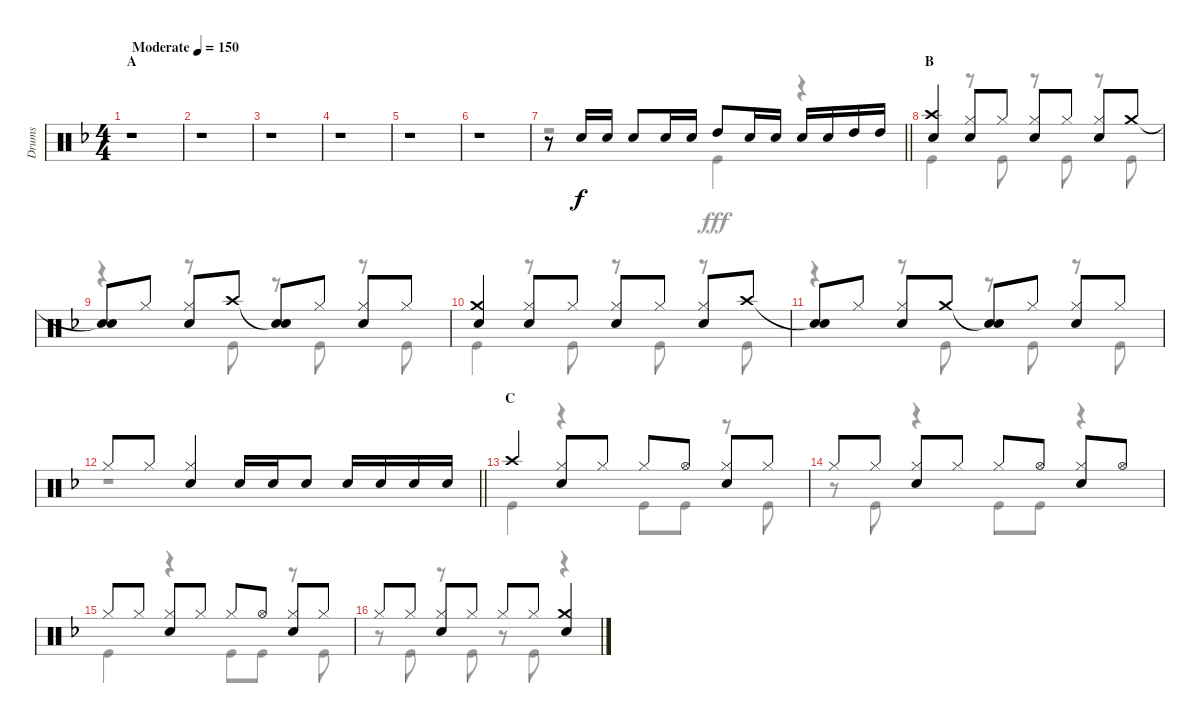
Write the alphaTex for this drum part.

\track ("Drums" "Drums") {instrument percussion}
\staff {score}
\articulation defaults
\voice
\ts (4 4)
\section ("" "A")
\tempo (150 "Moderate")
\clef neutral
\ks f
r.1{dy f} |
r.1 |
r.1 |
r.1 |
r.1 |
r.1 |
\barLineRight lightlight
r.8 "Snare (hit) 2".16 "Snare (hit) 2".16 "Snare (hit) 2".8 "Snare (hit) 2".16 "Snare (hit) 2".16 "High Tom (hit)".8 "Snare (hit) 2".16 "Snare (hit) 2".16 "Snare (hit) 2".16 "Snare (hit) 2".16 "High Tom (hit)".16 "High Tom (hit)".16 |
\section ("" "B")
("Crash high (hit)" "Snare (hit) 2").4 ("Hi-Hat (closed)" "Snare (hit) 2").8 "Hi-Hat (closed)".8 ("Hi-Hat (closed)" "Snare (hit) 2").8 "Hi-Hat (closed)".8 ("Hi-Hat (closed)" "Snare (hit) 2").8 "Crash medium (hit)".8 |
("Snare (hit)"{t} "Snare (hit) 2").8 "Hi-Hat (closed)".8 ("Hi-Hat (closed)" "Snare (hit) 2").8 "Crash high (hit)".8 ("Snare (hit)"{t} "Snare (hit) 2").8 "Hi-Hat (closed)".8 ("Hi-Hat (closed)" "Snare (hit) 2").8 "Hi-Hat (closed)".8 |
("Crash medium (hit)" "Snare (hit) 2").4 ("Hi-Hat (closed)" "Snare (hit) 2").8 "Hi-Hat (closed)".8 ("Hi-Hat (closed)" "Snare (hit) 2").8 "Hi-Hat (closed)".8 ("Hi-Hat (closed)" "Snare (hit) 2").8 "Crash high (hit)".8 |
("Snare (hit)"{t} "Snare (hit) 2").8 "Hi-Hat (closed)".8 ("Hi-Hat (closed)" "Snare (hit) 2").8 "Crash medium (hit)".8 ("Snare (hit)"{t} "Snare (hit) 2").8 "Hi-Hat (closed)".8 ("Hi-Hat (closed)" "Snare (hit) 2").8 "Hi-Hat (closed)".8 |
\barLineRight lightlight "Hi-Hat (closed)".8 "Hi-Hat (closed)".8
("Hi-Hat (closed)" "Snare (hit) 2").4 "Snare (hit) 2".16 "Snare (hit) 2".16 "Snare (hit) 2".8 "Snare (hit) 2".16 "Snare (hit) 2".16 "Snare (hit) 2".16 "Snare (hit) 2".16 |
\section ("" "C")
"Crash high (hit)".4 ("Hi-Hat (closed)" "Snare (hit) 2").8 "Hi-Hat (closed)".8 "Hi-Hat (closed)".8 "Hi-Hat (open)".8 ("Hi-Hat (closed)" "Snare (hit) 2").8 "Hi-Hat (closed)".8 |
"Hi-Hat (closed)".8 "Hi-Hat (closed)".8 ("Hi-Hat (closed)" "Snare (hit) 2").8 "Hi-Hat (closed)".8 "Hi-Hat (closed)".8 "Hi-Hat (open)".8 ("Hi-Hat (closed)" "Snare (hit) 2").8 "Hi-Hat (open)".8 |
"Hi-Hat (closed)".8 "Hi-Hat (closed)".8 ("Hi-Hat (closed)" "Snare (hit) 2").8 "Hi-Hat (closed)".8 "Hi-Hat (closed)".8 "Hi-Hat (open)".8 ("Hi-Hat (closed)" "Snare (hit) 2").8 "Hi-Hat (closed)".8 |
"Hi-Hat (closed)".8 "Hi-Hat (closed)".8 ("Hi-Hat (closed)" "Snare (hit) 2").8 "Hi-Hat (closed)".8 "Hi-Hat (closed)".8 "Hi-Hat (closed)".8 ("Crash medium (hit)" "Snare (hit) 2").4
\voice
\clef neutral
\ottava regular
\simile none
\ks f
r.1{dy fff} |
r.1 |
r.1 |
r.1 |
r.1 |
r.1 |
\barLineRight lightlight
r.2 "Kick (hit)".4 r.4 |
"Kick (hit)".4 r.8 "Kick (hit)".8 r.8 "Kick (hit)".8 r.8 "Kick (hit)".8 |
r.4 r.8 "Kick (hit)".8 r.8 "Kick (hit)".8 r.8 "Kick (hit)".8 |
"Kick (hit)".4 r.8 "Kick (hit)".8 r.8 "Kick (hit)".8 r.8 "Kick (hit)".8 |
r.4 r.8 "Kick (hit)".8 r.8 "Kick (hit)".8 r.8 "Kick (hit)".8 |
\barLineRight lightlight
r.1 |
"Kick (hit)".4 r.4 "Kick (hit)".8 "Kick (hit)".8 r.8 "Kick (hit)".8 |
r.8 "Kick (hit)".8 r.4 "Kick (hit)".8 "Kick (hit)".8 r.4 |
"Kick (hit)".4 r.4 "Kick (hit)".8 "Kick (hit)".8 r.8 "Kick (hit)".8 |
r.8 "Kick (hit)".8 r.8 "Kick (hit)".8 r.8 "Kick (hit)".8 r.4
